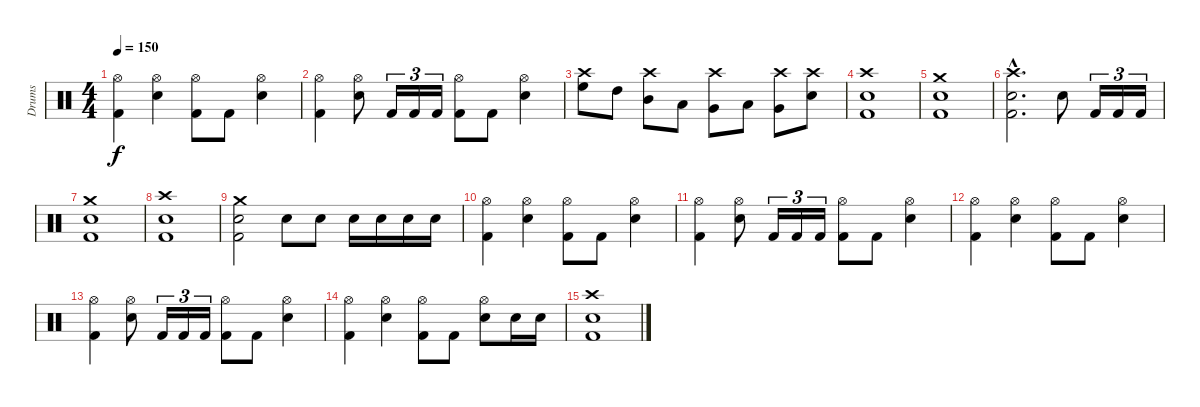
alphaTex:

\track ("Drums" "Drums") {instrument percussion}
\staff {score}
\articulation defaults
\ts (4 4)
\tempo 150
\clef neutral
\ks c
("Hi-Hat (open)" "Kick (hit) 2").4{dy f} ("Hi-Hat (open)" "Electric Snare (hit)").4 ("Hi-Hat (open)" "Kick (hit) 2").8 "Kick (hit) 2".8 ("Hi-Hat (open)" "Electric Snare (hit)").4 |
("Hi-Hat (open)" "Kick (hit) 2").4 ("Hi-Hat (open)" "Electric Snare (hit)").8 "Kick (hit) 2".16{tu (3 2)} "Kick (hit) 2".16{tu (3 2)} "Kick (hit) 2".16{tu (3 2)} ("Hi-Hat (open)" "Kick (hit) 2").8 "Kick (hit) 2".8 ("Hi-Hat (open)" "Electric Snare (hit)").4 |
("High Floor Tom (hit)" "Crash high (hit)").8 "High Tom (hit)".8 ("Mid Tom (hit)" "Crash high (hit)").8 "Low Tom (hit)".8 ("Very Low Tom (hit)" "Crash high (hit)").8 "Low Floor Tom (hit)".8 ("Very Low Tom (hit)" "Crash high (hit)").8 ("Electric Snare (hit)" "Crash high (hit)").8 |
("Crash high (hit)" "Kick (hit) 2" "Electric Snare (hit)").1 |
("Crash medium (hit)" "Kick (hit) 2" "Electric Snare (hit)").1 |
("Crash high (hit)"{hac} "Kick (hit) 2"{hac} "Electric Snare (hit)"{hac}).2{d} "Electric Snare (hit)".8 "Kick (hit) 2".16{tu (3 2)} "Kick (hit) 2".16{tu (3 2)} "Kick (hit) 2".16{tu (3 2)} |
("Crash medium (hit)" "Kick (hit) 2" "Electric Snare (hit)").1 |
("Crash high (hit)" "Kick (hit) 2" "Electric Snare (hit)").1 |
("Crash medium (hit)" "Kick (hit) 2" "Electric Snare (hit)").2 "Electric Snare (hit)".8 "Electric Snare (hit)".8 "Electric Snare (hit)".16 "Electric Snare (hit)".16 "Electric Snare (hit)".16 "Electric Snare (hit)".16 |
("Hi-Hat (open)" "Kick (hit) 2").4 ("Hi-Hat (open)" "Electric Snare (hit)").4 ("Hi-Hat (open)" "Kick (hit) 2").8 "Kick (hit) 2".8 ("Hi-Hat (open)" "Electric Snare (hit)").4 |
("Hi-Hat (open)" "Kick (hit) 2").4 ("Hi-Hat (open)" "Electric Snare (hit)").8 "Kick (hit) 2".16{tu (3 2)} "Kick (hit) 2".16{tu (3 2)} "Kick (hit) 2".16{tu (3 2)} ("Hi-Hat (open)" "Kick (hit) 2").8 "Kick (hit) 2".8 ("Hi-Hat (open)" "Electric Snare (hit)").4 |
("Hi-Hat (open)" "Kick (hit) 2").4 ("Hi-Hat (open)" "Electric Snare (hit)").4 ("Hi-Hat (open)" "Kick (hit) 2").8 "Kick (hit) 2".8 ("Hi-Hat (open)" "Electric Snare (hit)").4 |
("Hi-Hat (open)" "Kick (hit) 2").4 ("Hi-Hat (open)" "Electric Snare (hit)").8 "Kick (hit) 2".16{tu (3 2)} "Kick (hit) 2".16{tu (3 2)} "Kick (hit) 2".16{tu (3 2)} ("Hi-Hat (open)" "Kick (hit) 2").8 "Kick (hit) 2".8 ("Hi-Hat (open)" "Electric Snare (hit)").4 |
("Hi-Hat (open)" "Kick (hit) 2").4 ("Hi-Hat (open)" "Electric Snare (hit)").4 ("Hi-Hat (open)" "Kick (hit) 2").8 "Kick (hit) 2".8 ("Hi-Hat (open)" "Electric Snare (hit)").8 "Electric Snare (hit)".16 "Electric Snare (hit)".16 |
("Crash high (hit)" "Electric Snare (hit)" "Kick (hit) 2").1
